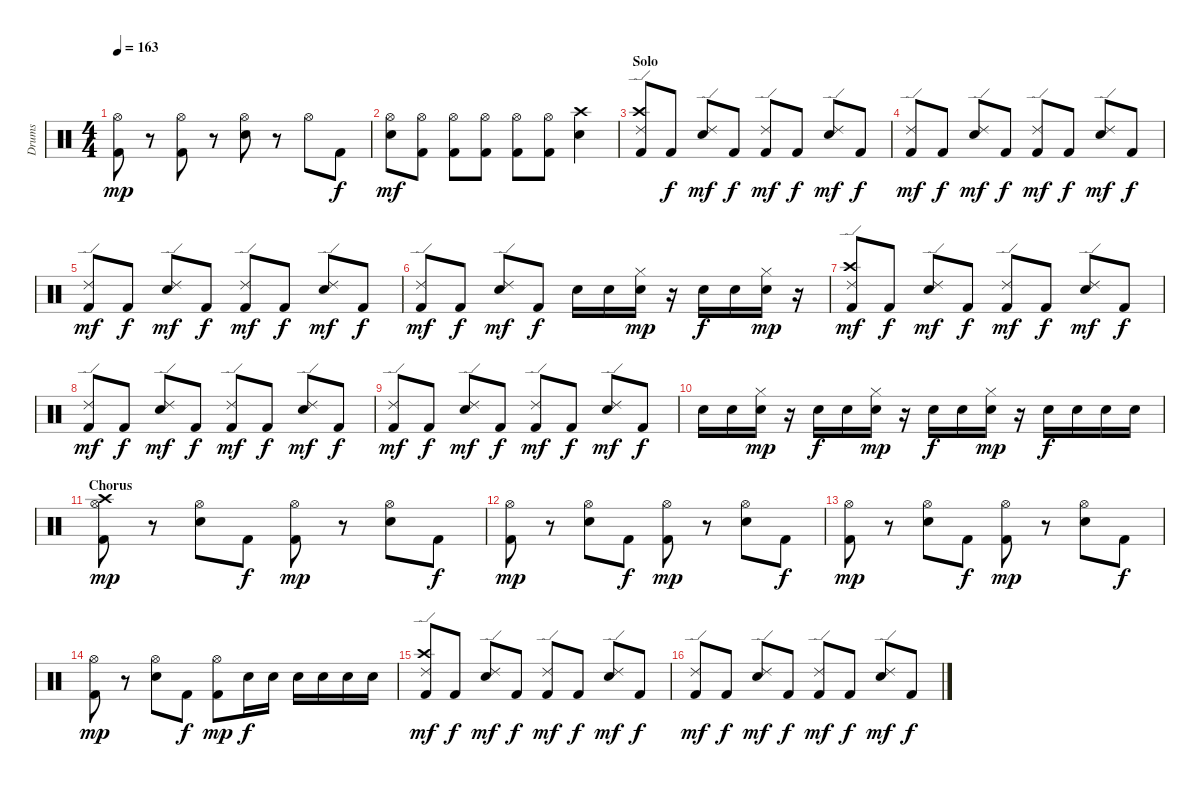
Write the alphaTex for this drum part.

\track ("Drums" "Drums") {instrument percussion}
\staff {score}
\articulation defaults
\ts (4 4)
\tempo 163
\clef neutral
\ks c
("Hi-Hat (open)" "Kick (hit) 2").8{dy mp} r.8 ("Hi-Hat (open)" "Kick (hit) 2").8 r.8 ("Hi-Hat (open)" "Electric Snare (hit)").8 r.8 "Hi-Hat (open)".8 "Kick (hit) 2".8{dy f} |
("Hi-Hat (open)" "Electric Snare (hit)").8{dy mf} ("Hi-Hat (open)" "Kick (hit) 2").8 ("Hi-Hat (open)" "Kick (hit) 2").8 ("Hi-Hat (open)" "Kick (hit) 2").8 ("Hi-Hat (open)" "Kick (hit) 2").8 ("Hi-Hat (open)" "Kick (hit) 2").8 ("Crash high (hit)" "Electric Snare (hit)").4 |
\section ("" "Solo")
("Crash high (hit)" "Ride (edge) 2" "Kick (hit) 2").8 "Kick (hit) 2".8{dy f} ("Ride (edge) 2" "Electric Snare (hit)").8{dy mf} "Kick (hit) 2".8{dy f} ("Ride (edge) 2" "Kick (hit) 2").8{dy mf} "Kick (hit) 2".8{dy f} ("Ride (edge) 2" "Electric Snare (hit)").8{dy mf} "Kick (hit) 2".8{dy f} |
("Ride (edge) 2" "Kick (hit) 2").8{dy mf} "Kick (hit) 2".8{dy f} ("Ride (edge) 2" "Electric Snare (hit)").8{dy mf} "Kick (hit) 2".8{dy f} ("Ride (edge) 2" "Kick (hit) 2").8{dy mf} "Kick (hit) 2".8{dy f} ("Ride (edge) 2" "Electric Snare (hit)").8{dy mf} "Kick (hit) 2".8{dy f} |
("Ride (edge) 2" "Kick (hit) 2").8{dy mf} "Kick (hit) 2".8{dy f} ("Ride (edge) 2" "Electric Snare (hit)").8{dy mf} "Kick (hit) 2".8{dy f} ("Ride (edge) 2" "Kick (hit) 2").8{dy mf} "Kick (hit) 2".8{dy f} ("Ride (edge) 2" "Electric Snare (hit)").8{dy mf} "Kick (hit) 2".8{dy f} |
("Ride (edge) 2" "Kick (hit) 2").8{dy mf} "Kick (hit) 2".8{dy f} ("Ride (edge) 2" "Electric Snare (hit)").8{dy mf} "Kick (hit) 2".8{dy f} "Electric Snare (hit)".16 "Electric Snare (hit)".16 ("Hi-Hat (closed)" "Electric Snare (hit)").16{dy mp} r.16 "Electric Snare (hit)".16{dy f} "Electric Snare (hit)".16 ("Hi-Hat (closed)" "Electric Snare (hit)").16{dy mp} r.16 |
("Crash high (hit)" "Ride (edge) 2" "Kick (hit) 2").8{dy mf} "Kick (hit) 2".8{dy f} ("Ride (edge) 2" "Electric Snare (hit)").8{dy mf} "Kick (hit) 2".8{dy f} ("Ride (edge) 2" "Kick (hit) 2").8{dy mf} "Kick (hit) 2".8{dy f} ("Ride (edge) 2" "Electric Snare (hit)").8{dy mf} "Kick (hit) 2".8{dy f} |
("Ride (edge) 2" "Kick (hit) 2").8{dy mf} "Kick (hit) 2".8{dy f} ("Ride (edge) 2" "Electric Snare (hit)").8{dy mf} "Kick (hit) 2".8{dy f} ("Ride (edge) 2" "Kick (hit) 2").8{dy mf} "Kick (hit) 2".8{dy f} ("Ride (edge) 2" "Electric Snare (hit)").8{dy mf} "Kick (hit) 2".8{dy f} |
("Ride (edge) 2" "Kick (hit) 2").8{dy mf} "Kick (hit) 2".8{dy f} ("Ride (edge) 2" "Electric Snare (hit)").8{dy mf} "Kick (hit) 2".8{dy f} ("Ride (edge) 2" "Kick (hit) 2").8{dy mf} "Kick (hit) 2".8{dy f} ("Ride (edge) 2" "Electric Snare (hit)").8{dy mf} "Kick (hit) 2".8{dy f} |
"Electric Snare (hit)".16 "Electric Snare (hit)".16 ("Hi-Hat (closed)" "Electric Snare (hit)").16{dy mp} r.16 "Electric Snare (hit)".16{dy f} "Electric Snare (hit)".16 ("Hi-Hat (closed)" "Electric Snare (hit)").16{dy mp} r.16 "Electric Snare (hit)".16{dy f} "Electric Snare (hit)".16 ("Hi-Hat (closed)" "Electric Snare (hit)").16{dy mp} r.16 "Electric Snare (hit)".16{dy f} "Electric Snare (hit)".16 "Electric Snare (hit)".16 "Electric Snare (hit)".16 |
\section ("" "Chorus")
("Crash high (hit)" "Hi-Hat (open)" "Kick (hit) 2").8{dy mp} r.8 ("Hi-Hat (open)" "Electric Snare (hit)").8 "Kick (hit) 2".8{dy f} ("Hi-Hat (open)" "Kick (hit) 2").8{dy mp} r.8 ("Hi-Hat (open)" "Electric Snare (hit)").8 "Kick (hit) 2".8{dy f} |
("Hi-Hat (open)" "Kick (hit) 2").8{dy mp} r.8 ("Hi-Hat (open)" "Electric Snare (hit)").8 "Kick (hit) 2".8{dy f} ("Hi-Hat (open)" "Kick (hit) 2").8{dy mp} r.8 ("Hi-Hat (open)" "Electric Snare (hit)").8 "Kick (hit) 2".8{dy f} |
("Hi-Hat (open)" "Kick (hit) 2").8{dy mp} r.8 ("Hi-Hat (open)" "Electric Snare (hit)").8 "Kick (hit) 2".8{dy f} ("Hi-Hat (open)" "Kick (hit) 2").8{dy mp} r.8 ("Hi-Hat (open)" "Electric Snare (hit)").8 "Kick (hit) 2".8{dy f} |
("Hi-Hat (open)" "Kick (hit) 2").8{dy mp} r.8 ("Hi-Hat (open)" "Electric Snare (hit)").8 "Kick (hit) 2".8{dy f} ("Hi-Hat (open)" "Kick (hit) 2").8{dy mp} "Electric Snare (hit)".16{dy f} "Electric Snare (hit)".16 "Electric Snare (hit)".16 "Electric Snare (hit)".16 "Electric Snare (hit)".16 "Electric Snare (hit)".16 |
("Crash high (hit)" "Ride (edge) 2" "Kick (hit) 2").8{dy mf} "Kick (hit) 2".8{dy f} ("Ride (edge) 2" "Electric Snare (hit)").8{dy mf} "Kick (hit) 2".8{dy f} ("Ride (edge) 2" "Kick (hit) 2").8{dy mf} "Kick (hit) 2".8{dy f} ("Ride (edge) 2" "Electric Snare (hit)").8{dy mf} "Kick (hit) 2".8{dy f} |
("Ride (edge) 2" "Kick (hit) 2").8{dy mf} "Kick (hit) 2".8{dy f} ("Ride (edge) 2" "Electric Snare (hit)").8{dy mf} "Kick (hit) 2".8{dy f} ("Ride (edge) 2" "Kick (hit) 2").8{dy mf} "Kick (hit) 2".8{dy f} ("Ride (edge) 2" "Electric Snare (hit)").8{dy mf} "Kick (hit) 2".8{dy f}
